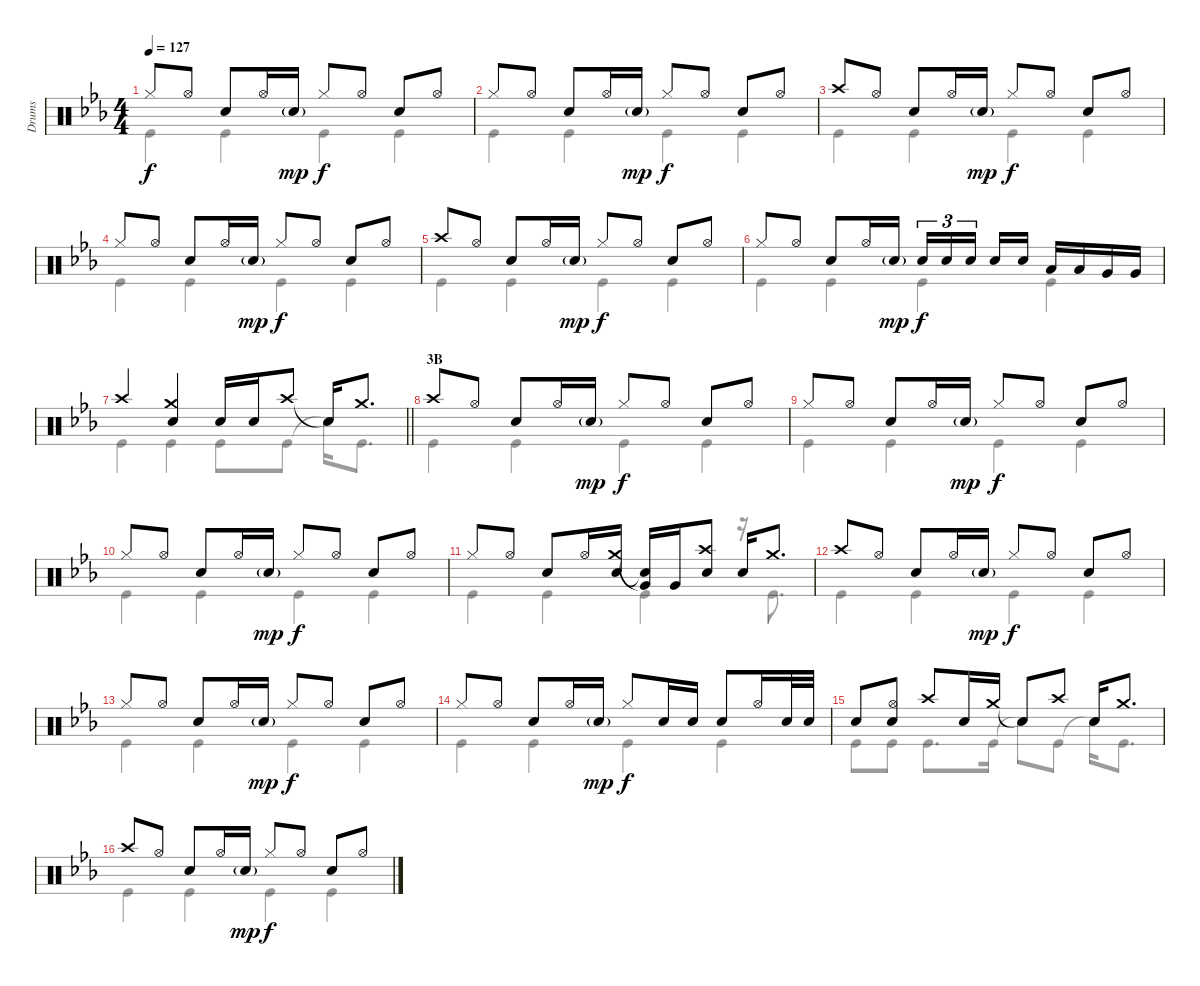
\track ("Drums" "Drums") {instrument percussion}
\staff {score}
\articulation defaults
\voice
\ts (4 4)
\tempo 127
\clef neutral
\ks eb "Hi-Hat (closed)".8{dy f} "Hi-Hat (open)".8 "Snare (hit) 2".8 "Hi-Hat (open)".16 "Snare (hit) 2"{g}.16{dy mp} "Hi-Hat (closed)".8{dy f} "Hi-Hat (open)".8 "Snare (hit) 2".8 "Hi-Hat (open)".8
|
"Hi-Hat (closed)".8 "Hi-Hat (open)".8 "Snare (hit) 2".8 "Hi-Hat (open)".16 "Snare (hit) 2"{g}.16{dy mp} "Hi-Hat (closed)".8{dy f} "Hi-Hat (open)".8 "Snare (hit) 2".8 "Hi-Hat (open)".8 |
"Crash high (hit)".8 "Hi-Hat (open)".8 "Snare (hit) 2".8 "Hi-Hat (open)".16 "Snare (hit) 2"{g}.16{dy mp} "Hi-Hat (closed)".8{dy f} "Hi-Hat (open)".8 "Snare (hit) 2".8 "Hi-Hat (open)".8 |
"Hi-Hat (closed)".8 "Hi-Hat (open)".8 "Snare (hit) 2".8 "Hi-Hat (open)".16 "Snare (hit) 2"{g}.16{dy mp} "Hi-Hat (closed)".8{dy f} "Hi-Hat (open)".8 "Snare (hit) 2".8 "Hi-Hat (open)".8 |
"Crash high (hit)".8 "Hi-Hat (open)".8 "Snare (hit) 2".8 "Hi-Hat (open)".16 "Snare (hit) 2"{g}.16{dy mp} "Hi-Hat (closed)".8{dy f} "Hi-Hat (open)".8 "Snare (hit) 2".8 "Hi-Hat (open)".8 |
"Hi-Hat (closed)".8 "Hi-Hat (open)".8 "Snare (hit) 2".8 "Hi-Hat (open)".16 "Snare (hit) 2"{g}.16{dy mp} "Snare (hit) 2".16{tu (3 2) dy f} "Snare (hit) 2".16{tu (3 2)} "Snare (hit) 2".16{tu (3 2) beam splitsecondary} "Snare (hit) 2".16 "Snare (hit) 2".16 "Low Tom (hit)".16 "Low Tom (hit)".16 "Very Low Tom (hit)".16 "Very Low Tom (hit)".16 |
\barLineRight lightlight "Crash high (hit)".4
("Crash medium (hit)" "Snare (hit) 2").4 "Snare (hit) 2".16 "Snare (hit) 2".16 "Crash high (hit)".8 "Snare (hit)"{t}.16 "Crash medium (hit)".8{d} |
\section ("" "3B")
"Crash high (hit)".8 "Hi-Hat (open)".8 "Snare (hit) 2".8 "Hi-Hat (open)".16 "Snare (hit) 2"{g}.16{dy mp} "Hi-Hat (closed)".8{dy f} "Hi-Hat (open)".8 "Snare (hit) 2".8 "Hi-Hat (open)".8 |
"Hi-Hat (closed)".8 "Hi-Hat (open)".8 "Snare (hit) 2".8 "Hi-Hat (open)".16 "Snare (hit) 2"{g}.16{dy mp} "Hi-Hat (closed)".8{dy f} "Hi-Hat (open)".8 "Snare (hit) 2".8 "Hi-Hat (open)".8 |
"Hi-Hat (closed)".8 "Hi-Hat (open)".8 "Snare (hit) 2".8 "Hi-Hat (open)".16 "Snare (hit) 2"{g}.16{dy mp} "Hi-Hat (closed)".8{dy f} "Hi-Hat (open)".8 "Snare (hit) 2".8 "Hi-Hat (open)".8 |
"Hi-Hat (closed)".8 "Hi-Hat (open)".8 "Snare (hit) 2".8 "Hi-Hat (open)".16 ("Crash medium (hit)" "Snare (hit) 2").16 ("Very Low Tom (hit)"{t} "Snare (hit)"{t}).16 "Very Low Tom (hit)".16 ("Crash high (hit)" "Snare (hit) 2").8 "Snare (hit) 2".16 "Crash medium (hit)".8{d} |
"Crash high (hit)".8 "Hi-Hat (open)".8 "Snare (hit) 2".8 "Hi-Hat (open)".16 "Snare (hit) 2"{g}.16{dy mp} "Hi-Hat (closed)".8{dy f} "Hi-Hat (open)".8 "Snare (hit) 2".8 "Hi-Hat (open)".8 |
"Hi-Hat (closed)".8 "Hi-Hat (open)".8 "Snare (hit) 2".8 "Hi-Hat (open)".16 "Snare (hit) 2"{g}.16{dy mp} "Hi-Hat (closed)".8{dy f} "Hi-Hat (open)".8 "Snare (hit) 2".8 "Hi-Hat (open)".8 |
"Hi-Hat (closed)".8 "Hi-Hat (open)".8 "Snare (hit) 2".8 "Hi-Hat (open)".16 "Snare (hit) 2"{g}.16{dy mp} "Hi-Hat (closed)".8{dy f} "Snare (hit) 2".16 "Snare (hit) 2".16 "Snare (hit) 2".8 "Hi-Hat (open)".16 "Snare (hit) 2".32 "Snare (hit) 2".32 |
"Snare (hit) 2".8 ("Hi-Hat (open)" "Snare (hit) 2").8 "Crash high (hit)".8 "Snare (hit) 2".16 "Crash medium (hit)".16 "Snare (hit)"{t}.8 "Crash high (hit)".8 "Snare (hit) 2".16 "Crash medium (hit)".8{d} |
"Crash high (hit)".8 "Hi-Hat (open)".8 "Snare (hit) 2".8 "Hi-Hat (open)".16 "Snare (hit) 2"{g}.16{dy mp} "Hi-Hat (closed)".8{dy f} "Hi-Hat (open)".8 "Snare (hit) 2".8 "Hi-Hat (open)".8
\voice
\clef neutral
\ottava regular
\simile none
\ks eb "Kick (hit)".4{dy f} "Kick (hit)".4 "Kick (hit)".4 "Kick (hit)".4
|
"Kick (hit)".4 "Kick (hit)".4 "Kick (hit)".4 "Kick (hit)".4 |
"Kick (hit)".4 "Kick (hit)".4 "Kick (hit)".4 "Kick (hit)".4 |
"Kick (hit)".4 "Kick (hit)".4 "Kick (hit)".4 "Kick (hit)".4 |
"Kick (hit)".4 "Kick (hit)".4 "Kick (hit)".4 "Kick (hit)".4 |
"Kick (hit)".4 "Kick (hit)".4 "Kick (hit)".4 "Kick (hit)".4 |
\barLineRight lightlight "Kick (hit)".4 "Kick (hit)".4 "Kick (hit)".8 "Kick (hit)".8 "Snare (hit)"{t}.16 "Kick (hit)".8{d}
|
"Kick (hit)".4 "Kick (hit)".4 "Kick (hit)".4 "Kick (hit)".4 |
"Kick (hit)".4 "Kick (hit)".4 "Kick (hit)".4 "Kick (hit)".4 |
"Kick (hit)".4 "Kick (hit)".4 "Kick (hit)".4 "Kick (hit)".4 |
"Kick (hit)".4 "Kick (hit)".4 "Kick (hit)".4 r.16 "Kick (hit)".8{d} |
"Kick (hit)".4 "Kick (hit)".4 "Kick (hit)".4 "Kick (hit)".4 |
"Kick (hit)".4 "Kick (hit)".4 "Kick (hit)".4 "Kick (hit)".4 |
"Kick (hit)".4 "Kick (hit)".4 "Kick (hit)".4 "Kick (hit)".4 |
"Kick (hit)".8 "Kick (hit)".8 "Kick (hit)".8{d} "Kick (hit)".16 "Snare (hit)"{t}.8 "Kick (hit)".8 "Snare (hit)"{t}.16 "Kick (hit)".8{d} |
"Kick (hit)".4 "Kick (hit)".4 "Kick (hit)".4 "Kick (hit)".4
